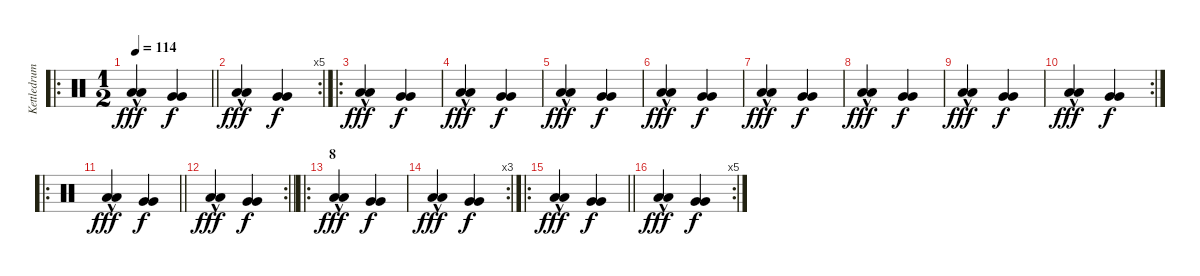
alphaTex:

\track ("Kettledrum" "Kettledrum") {instrument percussion}
\staff {score}
\articulation defaults
\ro
\ts (1 2)
\tempo 114
\clef neutral
\barLineRight lightlight
\ks c
("Low Floor Tom (hit)"{hac} "Low Floor Tom (hit)"{hac}).4{dy fff} ("Very Low Tom (hit)" "Very Low Tom (hit)").4{dy f} |
\rc 5
("Low Floor Tom (hit)"{hac} "Low Floor Tom (hit)"{hac}).4{dy fff} ("Very Low Tom (hit)" "Very Low Tom (hit)").4{dy f} |
\ro
("Low Floor Tom (hit)"{hac} "Low Floor Tom (hit)"{hac}).4{dy fff} ("Very Low Tom (hit)" "Very Low Tom (hit)").4{dy f} |
("Low Floor Tom (hit)"{hac} "Low Floor Tom (hit)"{hac}).4{dy fff} ("Very Low Tom (hit)" "Very Low Tom (hit)").4{dy f} |
("Low Floor Tom (hit)"{hac} "Low Floor Tom (hit)"{hac}).4{dy fff} ("Very Low Tom (hit)" "Very Low Tom (hit)").4{dy f} |
("Low Floor Tom (hit)"{hac} "Low Floor Tom (hit)"{hac}).4{dy fff} ("Very Low Tom (hit)" "Very Low Tom (hit)").4{dy f} |
("Low Floor Tom (hit)"{hac} "Low Floor Tom (hit)"{hac}).4{dy fff} ("Very Low Tom (hit)" "Very Low Tom (hit)").4{dy f} |
("Low Floor Tom (hit)"{hac} "Low Floor Tom (hit)"{hac}).4{dy fff} ("Very Low Tom (hit)" "Very Low Tom (hit)").4{dy f} |
("Low Floor Tom (hit)"{hac} "Low Floor Tom (hit)"{hac}).4{dy fff} ("Very Low Tom (hit)" "Very Low Tom (hit)").4{dy f} |
\rc 2
("Low Floor Tom (hit)"{hac} "Low Floor Tom (hit)"{hac}).4{dy fff} ("Very Low Tom (hit)" "Very Low Tom (hit)").4{dy f} |
\ro
\barLineRight lightlight
("Low Floor Tom (hit)"{hac} "Low Floor Tom (hit)"{hac}).4{dy fff} ("Very Low Tom (hit)" "Very Low Tom (hit)").4{dy f} |
\rc 2
\barLineRight lightlight
("Low Floor Tom (hit)"{hac} "Low Floor Tom (hit)"{hac}).4{dy fff} ("Very Low Tom (hit)" "Very Low Tom (hit)").4{dy f} |
\ro
\section ("" "8")
("Low Floor Tom (hit)"{hac} "Low Floor Tom (hit)"{hac}).4{dy fff} ("Very Low Tom (hit)" "Very Low Tom (hit)").4{dy f} |
\rc 3
("Low Floor Tom (hit)"{hac} "Low Floor Tom (hit)"{hac}).4{dy fff} ("Very Low Tom (hit)" "Very Low Tom (hit)").4{dy f} |
\ro
\barLineRight lightlight
("Low Floor Tom (hit)"{hac} "Low Floor Tom (hit)"{hac}).4{dy fff} ("Very Low Tom (hit)" "Very Low Tom (hit)").4{dy f} |
\rc 5
("Low Floor Tom (hit)"{hac} "Low Floor Tom (hit)"{hac}).4{dy fff} ("Very Low Tom (hit)" "Very Low Tom (hit)").4{dy f}
